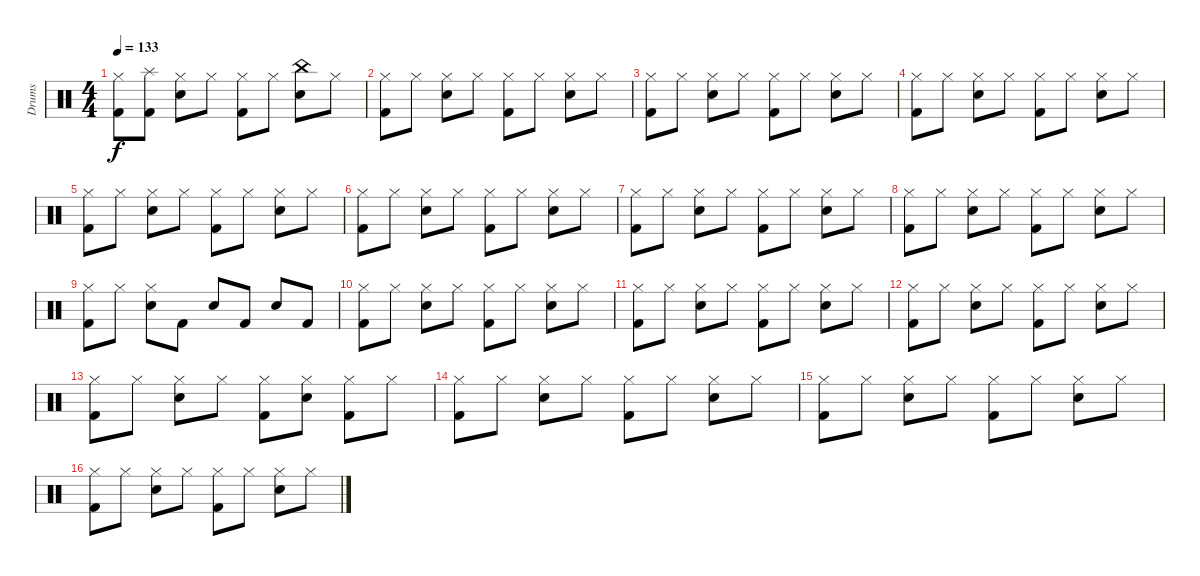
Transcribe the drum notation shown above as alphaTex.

\track ("Drums" "Drums") {instrument percussion}
\staff {score}
\articulation defaults
\ts (4 4)
\tempo 133
\clef neutral
\ks c
("Kick (hit) 2" "Hi-Hat (closed)").8{dy f} ("Kick (hit) 2" "Splash (hit)").8 ("Snare (hit) 2" "Hi-Hat (closed)").8 "Hi-Hat (closed)".8 ("Kick (hit) 2" "Hi-Hat (closed)").8 "Hi-Hat (closed)".8 ("Snare (hit) 2" "China (hit)").8 "Hi-Hat (closed)".8 |
("Kick (hit) 2" "Hi-Hat (closed)").8 "Hi-Hat (closed)".8 ("Snare (hit) 2" "Hi-Hat (closed)").8 "Hi-Hat (closed)".8 ("Kick (hit) 2" "Hi-Hat (closed)").8 "Hi-Hat (closed)".8 ("Snare (hit) 2" "Hi-Hat (closed)").8 "Hi-Hat (closed)".8 |
("Kick (hit) 2" "Hi-Hat (closed)").8 "Hi-Hat (closed)".8 ("Snare (hit) 2" "Hi-Hat (closed)").8 "Hi-Hat (closed)".8 ("Kick (hit) 2" "Hi-Hat (closed)").8 "Hi-Hat (closed)".8 ("Snare (hit) 2" "Hi-Hat (closed)").8 "Hi-Hat (closed)".8 |
("Kick (hit) 2" "Hi-Hat (closed)").8 "Hi-Hat (closed)".8 ("Snare (hit) 2" "Hi-Hat (closed)").8 "Hi-Hat (closed)".8 ("Kick (hit) 2" "Hi-Hat (closed)").8 "Hi-Hat (closed)".8 ("Snare (hit) 2" "Hi-Hat (closed)").8 "Hi-Hat (closed)".8 |
("Kick (hit) 2" "Hi-Hat (closed)").8 "Hi-Hat (closed)".8 ("Snare (hit) 2" "Hi-Hat (closed)").8 "Hi-Hat (closed)".8 ("Kick (hit) 2" "Hi-Hat (closed)").8 "Hi-Hat (closed)".8 ("Snare (hit) 2" "Hi-Hat (closed)").8 "Hi-Hat (closed)".8 |
("Kick (hit) 2" "Hi-Hat (closed)").8 "Hi-Hat (closed)".8 ("Snare (hit) 2" "Hi-Hat (closed)").8 "Hi-Hat (closed)".8 ("Kick (hit) 2" "Hi-Hat (closed)").8 "Hi-Hat (closed)".8 ("Snare (hit) 2" "Hi-Hat (closed)").8 "Hi-Hat (closed)".8 |
("Kick (hit) 2" "Hi-Hat (closed)").8 "Hi-Hat (closed)".8 ("Snare (hit) 2" "Hi-Hat (closed)").8 "Hi-Hat (closed)".8 ("Kick (hit) 2" "Hi-Hat (closed)").8 "Hi-Hat (closed)".8 ("Snare (hit) 2" "Hi-Hat (closed)").8 "Hi-Hat (closed)".8 |
("Kick (hit) 2" "Hi-Hat (closed)").8 "Hi-Hat (closed)".8 ("Snare (hit) 2" "Hi-Hat (closed)").8 "Hi-Hat (closed)".8 ("Kick (hit) 2" "Hi-Hat (closed)").8 "Hi-Hat (closed)".8 ("Snare (hit) 2" "Hi-Hat (closed)").8 "Hi-Hat (closed)".8 |
("Kick (hit) 2" "Hi-Hat (closed)").8 "Hi-Hat (closed)".8 ("Snare (hit) 2" "Hi-Hat (closed)").8 "Kick (hit) 2".8 "Snare (hit) 2".8 "Kick (hit) 2".8 "Snare (hit) 2".8 "Kick (hit) 2".8 |
("Kick (hit) 2" "Hi-Hat (closed)").8 "Hi-Hat (closed)".8 ("Snare (hit) 2" "Hi-Hat (closed)").8 "Hi-Hat (closed)".8 ("Kick (hit) 2" "Hi-Hat (closed)").8 "Hi-Hat (closed)".8 ("Snare (hit) 2" "Hi-Hat (closed)").8 "Hi-Hat (closed)".8 |
("Kick (hit) 2" "Hi-Hat (closed)").8 "Hi-Hat (closed)".8 ("Snare (hit) 2" "Hi-Hat (closed)").8 "Hi-Hat (closed)".8 ("Kick (hit) 2" "Hi-Hat (closed)").8 "Hi-Hat (closed)".8 ("Snare (hit) 2" "Hi-Hat (closed)").8 "Hi-Hat (closed)".8 |
("Kick (hit) 2" "Hi-Hat (closed)").8 "Hi-Hat (closed)".8 ("Snare (hit) 2" "Hi-Hat (closed)").8 "Hi-Hat (closed)".8 ("Kick (hit) 2" "Hi-Hat (closed)").8 "Hi-Hat (closed)".8 ("Snare (hit) 2" "Hi-Hat (closed)").8 "Hi-Hat (closed)".8 |
("Kick (hit) 2" "Hi-Hat (closed)").8 "Hi-Hat (closed)".8 ("Snare (hit) 2" "Hi-Hat (closed)").8 "Hi-Hat (closed)".8 ("Kick (hit) 2" "Hi-Hat (closed)").8 ("Snare (hit) 2" "Hi-Hat (closed)").8 ("Kick (hit) 2" "Hi-Hat (closed)").8 "Hi-Hat (closed)".8 |
("Kick (hit) 2" "Hi-Hat (closed)").8 "Hi-Hat (closed)".8 ("Snare (hit) 2" "Hi-Hat (closed)").8 "Hi-Hat (closed)".8 ("Kick (hit) 2" "Hi-Hat (closed)").8 "Hi-Hat (closed)".8 ("Snare (hit) 2" "Hi-Hat (closed)").8 "Hi-Hat (closed)".8 |
("Kick (hit) 2" "Hi-Hat (closed)").8 "Hi-Hat (closed)".8 ("Snare (hit) 2" "Hi-Hat (closed)").8 "Hi-Hat (closed)".8 ("Kick (hit) 2" "Hi-Hat (closed)").8 "Hi-Hat (closed)".8 ("Snare (hit) 2" "Hi-Hat (closed)").8 "Hi-Hat (closed)".8 |
("Kick (hit) 2" "Hi-Hat (closed)").8 "Hi-Hat (closed)".8 ("Snare (hit) 2" "Hi-Hat (closed)").8 "Hi-Hat (closed)".8 ("Kick (hit) 2" "Hi-Hat (closed)").8 "Hi-Hat (closed)".8 ("Snare (hit) 2" "Hi-Hat (closed)").8 "Hi-Hat (closed)".8
